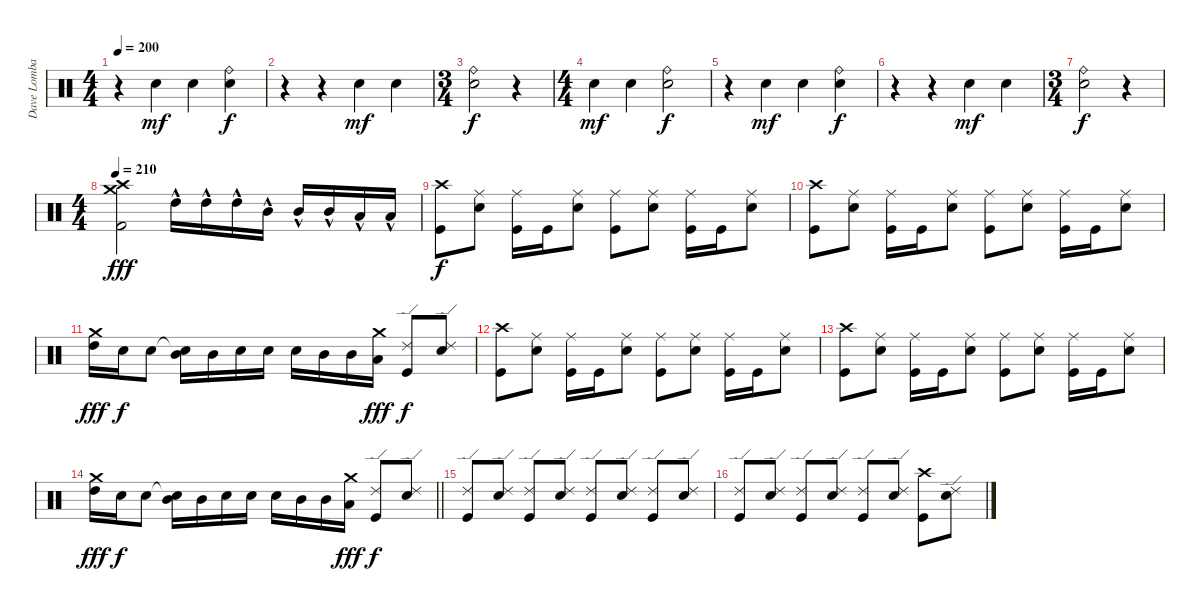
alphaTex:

\track ("Dave Lombardo:" "Dave Lomba") {instrument percussion}
\staff {score}
\articulation defaults
\ts (4 4)
\tempo 200
\clef neutral
\ks c
r.4{dy f} "Snare (hit) 2".4{dy mf} "Snare (hit) 2".4 ("Ride (bell)" "Electric Snare (hit)").4{dy f} |
r.4 r.4 "Snare (hit) 2".4{dy mf} "Snare (hit) 2".4 |
\ts (3 4)
("Ride (bell)" "Electric Snare (hit)").2{dy f} r.4 |
\ts (4 4)
"Snare (hit) 2".4{dy mf} "Snare (hit) 2".4 ("Ride (bell)" "Electric Snare (hit)").2{dy f} |
r.4 "Snare (hit) 2".4{dy mf} "Snare (hit) 2".4 ("Ride (bell)" "Electric Snare (hit)").4{dy f} |
r.4 r.4 "Snare (hit) 2".4{dy mf} "Snare (hit) 2".4 |
\ts (3 4)
("Ride (bell)" "Electric Snare (hit)").2{dy f} r.4 |
\ts (4 4)
\tempo 210
("Crash high (hit)" "Crash medium (hit)" "Kick (hit) 2").2{dy fff} "High Tom (hit)"{hac}.16 "High Tom (hit)"{hac}.16 "High Tom (hit)"{hac}.16 "Mid Tom (hit)"{hac}.16 "Mid Tom (hit)"{hac}.16 "Mid Tom (hit)"{hac}.16 "Low Tom (hit)"{hac}.16 "Low Tom (hit)"{hac}.16 |
("Crash high (hit)" "Kick (hit)").8{dy f} ("Ride (middle)" "Snare (hit) 2").8 ("Ride (middle)" "Kick (hit)").16 "Kick (hit)".16 ("Ride (middle)" "Snare (hit) 2").8 ("Ride (middle)" "Kick (hit)").8 ("Ride (middle)" "Snare (hit) 2").8 ("Ride (middle)" "Kick (hit)").16 "Kick (hit)".16 ("Ride (middle)" "Snare (hit) 2").8 |
("Crash high (hit)" "Kick (hit)").8 ("Ride (middle)" "Snare (hit) 2").8 ("Ride (middle)" "Kick (hit)").16 "Kick (hit)".16 ("Ride (middle)" "Snare (hit) 2").8 ("Ride (middle)" "Kick (hit)").8 ("Ride (middle)" "Snare (hit) 2").8 ("Ride (middle)" "Kick (hit)").16 "Kick (hit)".16 ("Ride (middle)" "Snare (hit) 2").8 |
("Crash medium (hit)" "High Tom (hit)").16{dy fff} "Snare (hit) 2".16{dy f} "Snare (hit) 2".8 ("Snare (hit)"{t} "Mid Tom (hit)").16 "Mid Tom (hit)".16 "Snare (hit) 2".16 "Snare (hit) 2".16 "Snare (hit) 2".16 "Mid Tom (hit)".16 "Mid Tom (hit)".16 ("Crash medium (hit)" "Low Tom (hit)").16{dy fff} ("Ride (edge) 2" "Kick (hit)").8{dy f} ("Ride (edge) 2" "Snare (hit) 2").8 |
("Crash high (hit)" "Kick (hit)").8 ("Ride (middle)" "Snare (hit) 2").8 ("Ride (middle)" "Kick (hit)").16 "Kick (hit)".16 ("Ride (middle)" "Snare (hit) 2").8 ("Ride (middle)" "Kick (hit)").8 ("Ride (middle)" "Snare (hit) 2").8 ("Ride (middle)" "Kick (hit)").16 "Kick (hit)".16 ("Ride (middle)" "Snare (hit) 2").8 |
("Crash high (hit)" "Kick (hit)").8 ("Ride (middle)" "Snare (hit) 2").8 ("Ride (middle)" "Kick (hit)").16 "Kick (hit)".16 ("Ride (middle)" "Snare (hit) 2").8 ("Ride (middle)" "Kick (hit)").8 ("Ride (middle)" "Snare (hit) 2").8 ("Ride (middle)" "Kick (hit)").16 "Kick (hit)".16 ("Ride (middle)" "Snare (hit) 2").8 |
\barLineRight lightlight
("Crash medium (hit)" "High Tom (hit)").16{dy fff} "Snare (hit) 2".16{dy f} "Snare (hit) 2".8 ("Snare (hit)"{t} "Mid Tom (hit)").16 "Mid Tom (hit)".16 "Snare (hit) 2".16 "Snare (hit) 2".16 "Snare (hit) 2".16 "Mid Tom (hit)".16 "Mid Tom (hit)".16 ("Crash medium (hit)" "Low Tom (hit)").16{dy fff} ("Ride (edge) 2" "Kick (hit)").8{dy f} ("Ride (edge) 2" "Snare (hit) 2").8 |
\section ("" "")
("Ride (edge) 2" "Kick (hit)").8 ("Ride (edge) 2" "Snare (hit) 2").8 ("Ride (edge) 2" "Kick (hit)").8 ("Ride (edge) 2" "Snare (hit) 2").8 ("Ride (edge) 2" "Kick (hit)").8 ("Ride (edge) 2" "Snare (hit) 2").8 ("Ride (edge) 2" "Kick (hit)").8 ("Ride (edge) 2" "Snare (hit) 2").8 |
("Ride (edge) 2" "Kick (hit)").8 ("Ride (edge) 2" "Snare (hit) 2").8 ("Ride (edge) 2" "Kick (hit)").8 ("Ride (edge) 2" "Snare (hit) 2").8 ("Ride (edge) 2" "Kick (hit)").8 ("Ride (edge) 2" "Snare (hit) 2").8 ("Crash high (hit)" "Kick (hit)").8 ("Ride (edge) 2" "Snare (hit) 2").8
